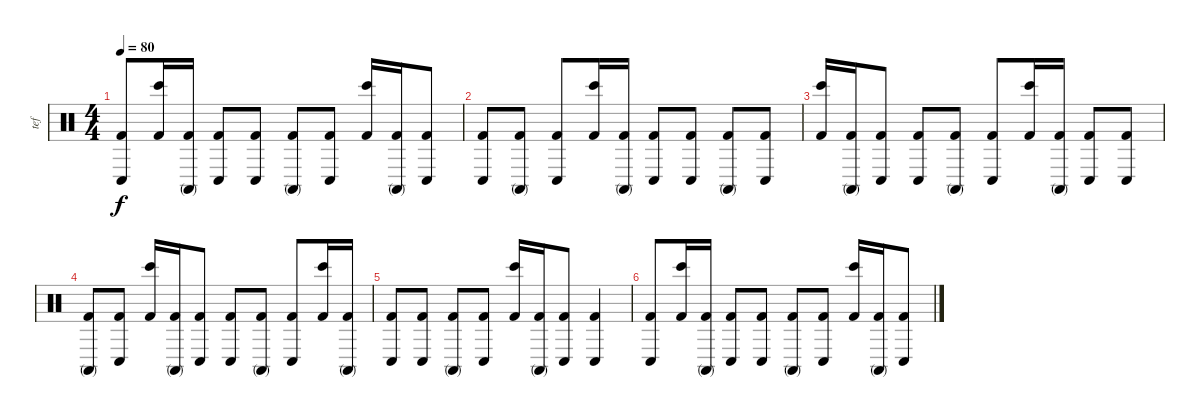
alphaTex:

\track ("tef" "tef") {instrument percussion}
\staff {score}
\articulation defaults
\ts (4 4)
\tempo 80
\clef neutral
\ks c
("Conga low (hit)" "Kick (hit) 2").8{dy f} ("Bongo High (hit)" "Kick (hit) 2").16 ("Conga high (mute)" "Kick (hit) 2").16 ("Conga low (hit)" "Kick (hit) 2").8 ("Conga low (hit)" "Kick (hit) 2").8 ("Conga high (mute)" "Kick (hit) 2").8 ("Conga low (hit)" "Kick (hit) 2").8 ("Bongo High (hit)" "Kick (hit) 2").16 ("Conga high (mute)" "Kick (hit) 2").16 ("Conga low (hit)" "Kick (hit) 2").8 |
("Conga low (hit)" "Kick (hit) 2").8 ("Conga high (mute)" "Kick (hit) 2").8 ("Conga low (hit)" "Kick (hit) 2").8 ("Bongo High (hit)" "Kick (hit) 2").16 ("Conga high (mute)" "Kick (hit) 2").16 ("Conga low (hit)" "Kick (hit) 2").8 ("Conga low (hit)" "Kick (hit) 2").8 ("Conga high (mute)" "Kick (hit) 2").8 ("Conga low (hit)" "Kick (hit) 2").8 |
("Bongo High (hit)" "Kick (hit) 2").16 ("Conga high (mute)" "Kick (hit) 2").16 ("Conga low (hit)" "Kick (hit) 2").8 ("Conga low (hit)" "Kick (hit) 2").8 ("Conga high (mute)" "Kick (hit) 2").8 ("Conga low (hit)" "Kick (hit) 2").8 ("Bongo High (hit)" "Kick (hit) 2").16 ("Conga high (mute)" "Kick (hit) 2").16 ("Conga low (hit)" "Kick (hit) 2").8 ("Conga low (hit)" "Kick (hit) 2").8 |
("Conga high (mute)" "Kick (hit) 2").8 ("Conga low (hit)" "Kick (hit) 2").8 ("Bongo High (hit)" "Kick (hit) 2").16 ("Conga high (mute)" "Kick (hit) 2").16 ("Conga low (hit)" "Kick (hit) 2").8 ("Conga low (hit)" "Kick (hit) 2").8 ("Conga high (mute)" "Kick (hit) 2").8 ("Conga low (hit)" "Kick (hit) 2").8 ("Bongo High (hit)" "Kick (hit) 2").16 ("Conga high (mute)" "Kick (hit) 2").16 |
("Conga low (hit)" "Kick (hit) 2").8 ("Conga low (hit)" "Kick (hit) 2").8 ("Conga high (mute)" "Kick (hit) 2").8 ("Conga low (hit)" "Kick (hit) 2").8 ("Bongo High (hit)" "Kick (hit) 2").16 ("Conga high (mute)" "Kick (hit) 2").16 ("Conga low (hit)" "Kick (hit) 2").8 ("Conga low (hit)" "Kick (hit) 2").4 |
("Conga low (hit)" "Kick (hit) 2").8 ("Bongo High (hit)" "Kick (hit) 2").16 ("Conga high (mute)" "Kick (hit) 2").16 ("Conga low (hit)" "Kick (hit) 2").8 ("Conga low (hit)" "Kick (hit) 2").8 ("Conga high (mute)" "Kick (hit) 2").8 ("Conga low (hit)" "Kick (hit) 2").8 ("Bongo High (hit)" "Kick (hit) 2").16 ("Conga high (mute)" "Kick (hit) 2").16 ("Conga low (hit)" "Kick (hit) 2").8
